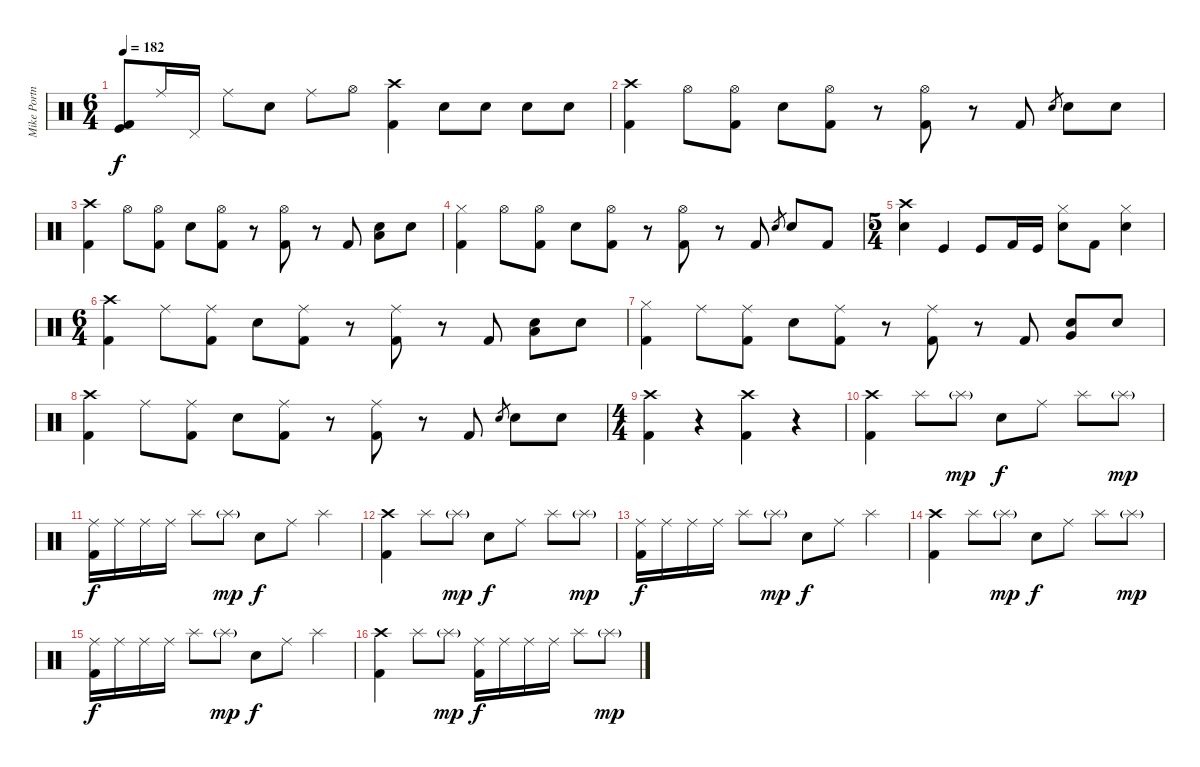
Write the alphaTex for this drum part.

\track ("Mike Portnoy" "Mike Portn") {instrument percussion}
\staff {score}
\articulation defaults
\ts (6 4)
\tempo 182
\clef neutral
\ks c
("Kick (hit) 2" "Kick (hit)").8{dy f} "Ride (middle)".16 "Pedal Hi-Hat (hit)".16 "Ride (middle)".8 "Electric Snare (hit)".8 "Ride (middle)".8 "Hi-Hat (open)".8 ("Crash high (hit)" "Kick (hit) 2").4 "Electric Snare (hit)".8 "Electric Snare (hit)".8 "Electric Snare (hit)".8 "Electric Snare (hit)".8 |
("Crash high (hit)" "Kick (hit) 2").4 "Hi-Hat (open)".8 ("Hi-Hat (open)" "Kick (hit) 2").8 "Electric Snare (hit)".8 ("Hi-Hat (open)" "Kick (hit) 2").8 r.8 ("Hi-Hat (open)" "Kick (hit) 2").8 r.8 "Kick (hit) 2".8 "Electric Snare (hit)".8{gr} "Electric Snare (hit)".8 "Electric Snare (hit)".8 |
("Crash high (hit)" "Kick (hit) 2").4 "Hi-Hat (open)".8 ("Hi-Hat (open)" "Kick (hit) 2").8 "Electric Snare (hit)".8 ("Hi-Hat (open)" "Kick (hit) 2").8 r.8 ("Hi-Hat (open)" "Kick (hit) 2").8 r.8 "Kick (hit) 2".8 ("Electric Snare (hit)" "Low Floor Tom (hit)").8 "Electric Snare (hit)".8 |
("Hi-Hat (closed)" "Kick (hit) 2").4 "Hi-Hat (open)".8 ("Hi-Hat (open)" "Kick (hit) 2").8 "Electric Snare (hit)".8 ("Hi-Hat (open)" "Kick (hit) 2").8 r.8 ("Hi-Hat (open)" "Kick (hit) 2").8 r.8 "Kick (hit) 2".8 "Electric Snare (hit)".8{gr} "Electric Snare (hit)".8 "Kick (hit) 2".8 |
\ts (5 4)
("Crash high (hit)" "Electric Snare (hit)").4 "Kick (hit)".4 "Kick (hit)".8 "Kick (hit) 2".16 "Kick (hit)".16 ("Hi-Hat (closed)" "Electric Snare (hit)").8 "Kick (hit) 2".8 ("Hi-Hat (closed)" "Electric Snare (hit)").4 |
\ts (6 4)
("Crash high (hit)" "Kick (hit) 2").4 "Ride (middle)".8 ("Ride (middle)" "Kick (hit) 2").8 "Electric Snare (hit)".8 ("Ride (middle)" "Kick (hit) 2").8 r.8 ("Ride (middle)" "Kick (hit) 2").8 r.8 "Kick (hit) 2".8 ("Electric Snare (hit)" "Low Floor Tom (hit)").8 "Electric Snare (hit)".8 |
("Hi-Hat (closed)" "Kick (hit) 2").4 "Ride (middle)".8 ("Ride (middle)" "Kick (hit) 2").8 "Electric Snare (hit)".8 ("Ride (middle)" "Kick (hit) 2").8 r.8 ("Ride (middle)" "Kick (hit) 2").8 r.8 "Kick (hit) 2".8 ("Electric Snare (hit)" "Very Low Tom (hit)").8 "Electric Snare (hit)".8 |
("Crash high (hit)" "Kick (hit) 2").4 "Ride (middle)".8 ("Ride (middle)" "Kick (hit) 2").8 "Electric Snare (hit)".8 ("Ride (middle)" "Kick (hit) 2").8 r.8 ("Ride (middle)" "Kick (hit) 2").8 r.8 "Kick (hit) 2".8 "Electric Snare (hit)".8{gr} "Electric Snare (hit)".8 "Electric Snare (hit)".8 |
\ts (4 4)
("Crash high (hit)" "Kick (hit) 2").4 r.4 ("Crash high (hit)" "Kick (hit) 2").4 r.4 |
("Crash high (hit)" "Kick (hit) 2").4 "Splash (hit)".8 "Splash (hit)"{g}.8{dy mp} "Electric Snare (hit)".8{dy f} "Ride (middle)".8 "Splash (hit)".8 "Splash (hit)"{g}.8{dy mp} |
("Ride (middle)" "Kick (hit) 2").16{dy f} "Ride (middle)".16 "Ride (middle)".16 "Ride (middle)".16 "Splash (hit)".8 "Splash (hit)"{g}.8{dy mp} "Electric Snare (hit)".8{dy f} "Ride (middle)".8 "Splash (hit)".4 |
("Crash high (hit)" "Kick (hit) 2").4 "Splash (hit)".8 "Splash (hit)"{g}.8{dy mp} "Electric Snare (hit)".8{dy f} "Ride (middle)".8 "Splash (hit)".8 "Splash (hit)"{g}.8{dy mp} |
("Ride (middle)" "Kick (hit) 2").16{dy f} "Ride (middle)".16 "Ride (middle)".16 "Ride (middle)".16 "Splash (hit)".8 "Splash (hit)"{g}.8{dy mp} "Electric Snare (hit)".8{dy f} "Ride (middle)".8 "Splash (hit)".4 |
("Crash high (hit)" "Kick (hit) 2").4 "Splash (hit)".8 "Splash (hit)"{g}.8{dy mp} "Electric Snare (hit)".8{dy f} "Ride (middle)".8 "Splash (hit)".8 "Splash (hit)"{g}.8{dy mp} |
("Ride (middle)" "Kick (hit) 2").16{dy f} "Ride (middle)".16 "Ride (middle)".16 "Ride (middle)".16 "Splash (hit)".8 "Splash (hit)"{g}.8{dy mp} "Electric Snare (hit)".8{dy f} "Ride (middle)".8 "Splash (hit)".4 |
("Crash high (hit)" "Kick (hit) 2").4 "Splash (hit)".8 "Splash (hit)"{g}.8{dy mp} ("Ride (middle)" "Kick (hit) 2").16{dy f} "Ride (middle)".16 "Ride (middle)".16 "Ride (middle)".16 "Splash (hit)".8 "Splash (hit)"{g}.8{dy mp}
